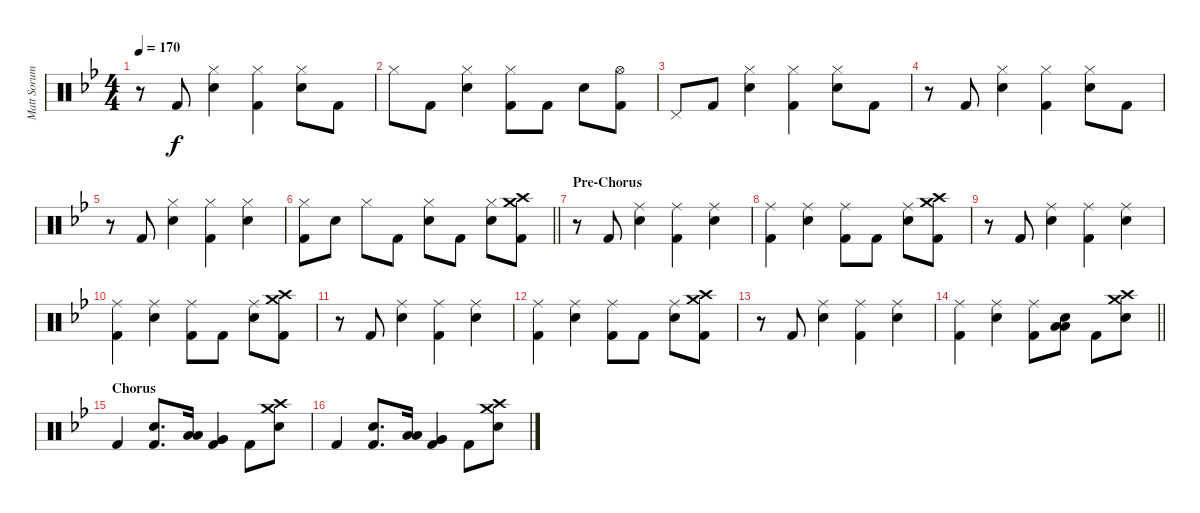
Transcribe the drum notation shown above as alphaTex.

\track ("Matt Sorum - Drums" "Matt Sorum") {instrument percussion}
\staff {score}
\articulation defaults
\ts (4 4)
\tempo 170
\clef neutral
\ks bb
r.8{dy f} "Kick (hit) 2".8 ("Hi-Hat (closed)" "Snare (hit) 2").4 ("Hi-Hat (closed)" "Kick (hit) 2").4 ("Hi-Hat (closed)" "Snare (hit) 2").8 "Kick (hit) 2".8 |
"Hi-Hat (closed)".8 "Kick (hit) 2".8 ("Hi-Hat (closed)" "Snare (hit) 2").4 ("Hi-Hat (closed)" "Kick (hit) 2").8 "Kick (hit) 2".8 "Snare (hit) 2".8 ("Hi-Hat (open)" "Kick (hit) 2").8 |
"Pedal Hi-Hat (hit)".8 "Kick (hit) 2".8 ("Hi-Hat (closed)" "Snare (hit) 2").4 ("Hi-Hat (closed)" "Kick (hit) 2").4 ("Hi-Hat (closed)" "Snare (hit) 2").8 "Kick (hit) 2".8 |
r.8 "Kick (hit) 2".8 ("Hi-Hat (closed)" "Snare (hit) 2").4 ("Hi-Hat (closed)" "Kick (hit) 2").4 ("Hi-Hat (closed)" "Snare (hit) 2").8 "Kick (hit) 2".8 |
r.8 "Kick (hit) 2".8 ("Hi-Hat (closed)" "Snare (hit) 2").4 ("Hi-Hat (closed)" "Kick (hit) 2").4 ("Hi-Hat (closed)" "Snare (hit) 2").4 |
\barLineRight lightlight
("Hi-Hat (closed)" "Kick (hit) 2").8 "Snare (hit) 2".8 "Hi-Hat (closed)".8 "Kick (hit) 2".8 ("Hi-Hat (closed)" "Snare (hit) 2").8 "Kick (hit) 2".8 ("Hi-Hat (closed)" "Snare (hit) 2").8 ("Crash medium (hit)" "Crash high (hit)" "Kick (hit) 2").8 |
\section ("" "Pre-Chorus")
r.8 "Kick (hit) 2".8 ("Ride (middle)" "Snare (hit) 2").4 ("Ride (middle)" "Kick (hit) 2").4 ("Ride (middle)" "Snare (hit) 2").4 |
("Ride (middle)" "Kick (hit) 2").4 ("Ride (middle)" "Snare (hit) 2").4 ("Ride (middle)" "Kick (hit) 2").8 "Kick (hit) 2".8 ("Ride (middle)" "Snare (hit) 2").8 ("Crash medium (hit)" "Crash high (hit)" "Kick (hit) 2").8 |
r.8 "Kick (hit) 2".8 ("Ride (middle)" "Snare (hit) 2").4 ("Ride (middle)" "Kick (hit) 2").4 ("Ride (middle)" "Snare (hit) 2").4 |
("Ride (middle)" "Kick (hit) 2").4 ("Ride (middle)" "Snare (hit) 2").4 ("Ride (middle)" "Kick (hit) 2").8 "Kick (hit) 2".8 ("Ride (middle)" "Snare (hit) 2").8 ("Crash medium (hit)" "Crash high (hit)" "Kick (hit) 2").8 |
r.8 "Kick (hit) 2".8 ("Ride (middle)" "Snare (hit) 2").4 ("Ride (middle)" "Kick (hit) 2").4 ("Ride (middle)" "Snare (hit) 2").4 |
("Ride (middle)" "Kick (hit) 2").4 ("Ride (middle)" "Snare (hit) 2").4 ("Ride (middle)" "Kick (hit) 2").8 "Kick (hit) 2".8 ("Ride (middle)" "Snare (hit) 2").8 ("Crash medium (hit)" "Crash high (hit)" "Kick (hit) 2").8 |
r.8 "Kick (hit) 2".8 ("Ride (middle)" "Snare (hit) 2").4 ("Ride (middle)" "Kick (hit) 2").4 ("Ride (middle)" "Snare (hit) 2").4 |
\barLineRight lightlight
("Ride (middle)" "Kick (hit) 2").4 ("Ride (middle)" "Snare (hit) 2").4 ("Ride (middle)" "Kick (hit) 2").8 ("Low Tom (hit)" "Low Tom (hit)" "Snare (hit) 2").8 "Kick (hit) 2".8 ("Crash medium (hit)" "Crash high (hit)" "Snare (hit) 2").8 |
\section ("" "Chorus")
"Kick (hit) 2".4 ("Snare (hit) 2" "Kick (hit) 2").8{d} ("Low Tom (hit)" "Low Tom (hit)").16 ("Very Low Tom (hit)" "Very Low Tom (hit)" "Kick (hit) 2").4 "Kick (hit) 2".8 ("Crash medium (hit)" "Crash high (hit)" "Snare (hit) 2").8 |
"Kick (hit) 2".4 ("Snare (hit) 2" "Kick (hit) 2").8{d} ("Low Tom (hit)" "Low Tom (hit)").16 ("Very Low Tom (hit)" "Very Low Tom (hit)" "Kick (hit) 2").4 "Kick (hit) 2".8 ("Crash medium (hit)" "Crash high (hit)" "Snare (hit) 2").8
